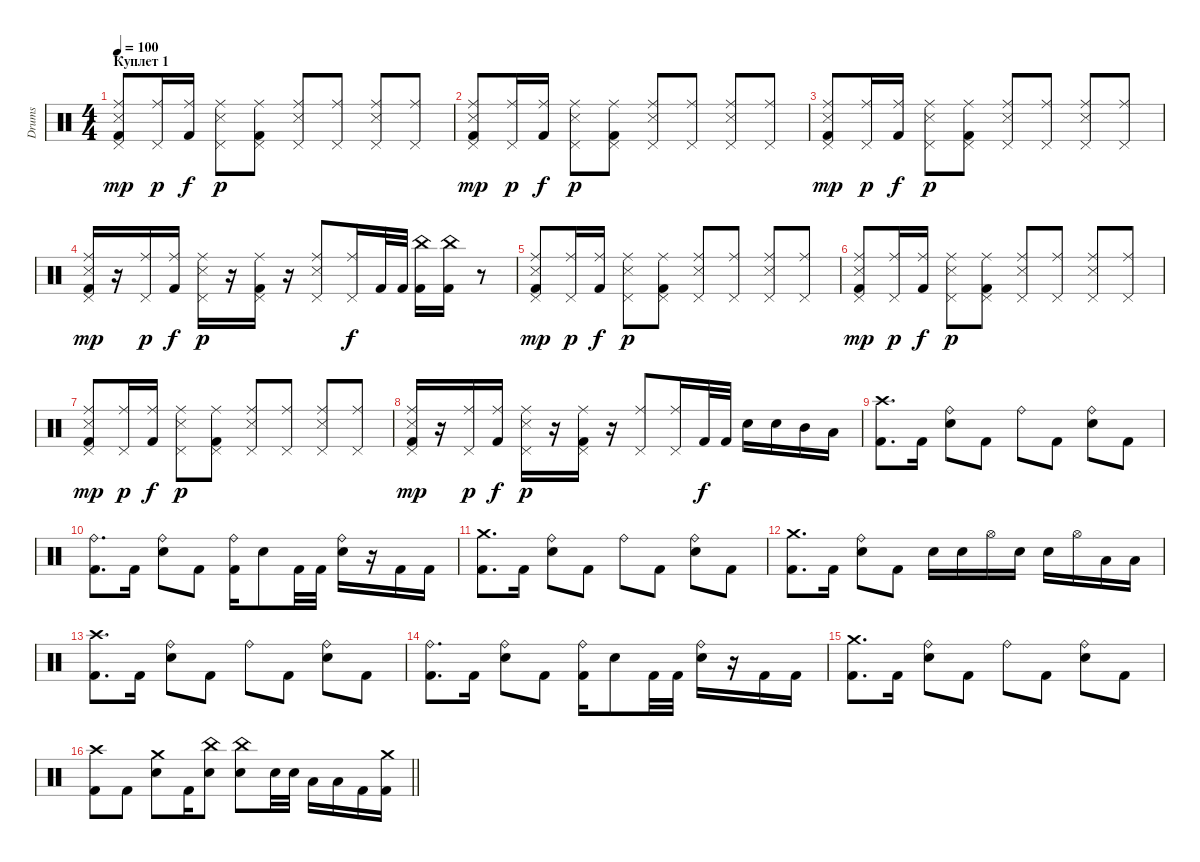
\track ("Drums" "Drums") {instrument percussion}
\staff {score}
\articulation defaults
\ts (4 4)
\section ("" "Куплет 1")
\tempo 100
\clef neutral
\ks c
("Ride (middle)" "Pedal Hi-Hat (hit)" "Snare (side stick) 3" "Kick (hit) 2").8{dy mp} ("Ride (middle)" "Pedal Hi-Hat (hit)").16{dy p} ("Ride (middle)" "Kick (hit) 2").16{dy f} ("Ride (middle)" "Pedal Hi-Hat (hit)" "Snare (side stick) 3").8{dy p} ("Ride (middle)" "Pedal Hi-Hat (hit)" "Kick (hit) 2").8 ("Ride (middle)" "Pedal Hi-Hat (hit)" "Snare (side stick) 3").8 ("Ride (middle)" "Pedal Hi-Hat (hit)").8 ("Ride (middle)" "Pedal Hi-Hat (hit)" "Snare (side stick) 3").8 ("Ride (middle)" "Pedal Hi-Hat (hit)").8 |
("Ride (middle)" "Pedal Hi-Hat (hit)" "Snare (side stick) 3" "Kick (hit) 2").8{dy mp} ("Ride (middle)" "Pedal Hi-Hat (hit)").16{dy p} ("Ride (middle)" "Kick (hit) 2").16{dy f} ("Ride (middle)" "Pedal Hi-Hat (hit)" "Snare (side stick) 3").8{dy p} ("Ride (middle)" "Pedal Hi-Hat (hit)" "Kick (hit) 2").8 ("Ride (middle)" "Pedal Hi-Hat (hit)" "Snare (side stick) 3").8 ("Ride (middle)" "Pedal Hi-Hat (hit)").8 ("Ride (middle)" "Pedal Hi-Hat (hit)" "Snare (side stick) 3").8 ("Ride (middle)" "Pedal Hi-Hat (hit)").8 |
("Ride (middle)" "Pedal Hi-Hat (hit)" "Snare (side stick) 3" "Kick (hit) 2").8{dy mp} ("Ride (middle)" "Pedal Hi-Hat (hit)").16{dy p} ("Ride (middle)" "Kick (hit) 2").16{dy f} ("Ride (middle)" "Pedal Hi-Hat (hit)" "Snare (side stick) 3").8{dy p} ("Ride (middle)" "Pedal Hi-Hat (hit)" "Kick (hit) 2").8 ("Ride (middle)" "Pedal Hi-Hat (hit)" "Snare (side stick) 3").8 ("Ride (middle)" "Pedal Hi-Hat (hit)").8 ("Ride (middle)" "Pedal Hi-Hat (hit)" "Snare (side stick) 3").8 ("Ride (middle)" "Pedal Hi-Hat (hit)").8 |
("Ride (middle)" "Pedal Hi-Hat (hit)" "Snare (side stick) 3" "Kick (hit) 2").16{dy mp} r.16 ("Ride (middle)" "Pedal Hi-Hat (hit)").16{dy p} ("Ride (middle)" "Kick (hit) 2").16{dy f} ("Ride (middle)" "Pedal Hi-Hat (hit)" "Snare (side stick) 3").16{dy p} r.16 ("Ride (middle)" "Pedal Hi-Hat (hit)" "Kick (hit) 2").16 r.16 ("Ride (middle)" "Pedal Hi-Hat (hit)" "Snare (side stick) 3").8 ("Ride (middle)" "Pedal Hi-Hat (hit)").16{dy f} "Kick (hit) 2".32 "Kick (hit) 2".32 ("China (hit)" "Kick (hit) 2").16 ("China (hit)" "Kick (hit) 2").16 r.8 |
("Ride (middle)" "Pedal Hi-Hat (hit)" "Snare (side stick) 3" "Kick (hit) 2").8{dy mp} ("Ride (middle)" "Pedal Hi-Hat (hit)").16{dy p} ("Ride (middle)" "Kick (hit) 2").16{dy f} ("Ride (middle)" "Pedal Hi-Hat (hit)" "Snare (side stick) 3").8{dy p} ("Ride (middle)" "Pedal Hi-Hat (hit)" "Kick (hit) 2").8 ("Ride (middle)" "Pedal Hi-Hat (hit)" "Snare (side stick) 3").8 ("Ride (middle)" "Pedal Hi-Hat (hit)").8 ("Ride (middle)" "Pedal Hi-Hat (hit)" "Snare (side stick) 3").8 ("Ride (middle)" "Pedal Hi-Hat (hit)").8 |
("Ride (middle)" "Pedal Hi-Hat (hit)" "Snare (side stick) 3" "Kick (hit) 2").8{dy mp} ("Ride (middle)" "Pedal Hi-Hat (hit)").16{dy p} ("Ride (middle)" "Kick (hit) 2").16{dy f} ("Ride (middle)" "Pedal Hi-Hat (hit)" "Snare (side stick) 3").8{dy p} ("Ride (middle)" "Pedal Hi-Hat (hit)" "Kick (hit) 2").8 ("Ride (middle)" "Pedal Hi-Hat (hit)" "Snare (side stick) 3").8 ("Ride (middle)" "Pedal Hi-Hat (hit)").8 ("Ride (middle)" "Pedal Hi-Hat (hit)" "Snare (side stick) 3").8 ("Ride (middle)" "Pedal Hi-Hat (hit)").8 |
("Ride (middle)" "Pedal Hi-Hat (hit)" "Snare (side stick) 3" "Kick (hit) 2").8{dy mp} ("Ride (middle)" "Pedal Hi-Hat (hit)").16{dy p} ("Ride (middle)" "Kick (hit) 2").16{dy f} ("Ride (middle)" "Pedal Hi-Hat (hit)" "Snare (side stick) 3").8{dy p} ("Ride (middle)" "Pedal Hi-Hat (hit)" "Kick (hit) 2").8 ("Ride (middle)" "Pedal Hi-Hat (hit)" "Snare (side stick) 3").8 ("Ride (middle)" "Pedal Hi-Hat (hit)").8 ("Ride (middle)" "Pedal Hi-Hat (hit)" "Snare (side stick) 3").8 ("Ride (middle)" "Pedal Hi-Hat (hit)").8 |
("Ride (middle)" "Pedal Hi-Hat (hit)" "Snare (side stick) 3" "Kick (hit) 2").16{dy mp} r.16 ("Ride (middle)" "Pedal Hi-Hat (hit)").16{dy p} ("Ride (middle)" "Kick (hit) 2").16{dy f} ("Ride (middle)" "Pedal Hi-Hat (hit)" "Snare (side stick) 3").16{dy p} r.16 ("Ride (middle)" "Pedal Hi-Hat (hit)" "Kick (hit) 2").16 r.16 ("Ride (middle)" "Pedal Hi-Hat (hit)").8 ("Ride (middle)" "Pedal Hi-Hat (hit)").16 "Kick (hit) 2".32{dy f} "Kick (hit) 2".32 "Snare (hit) 2".16 "Snare (hit) 2".16 "Mid Tom (hit)".16 "Low Tom (hit)".16 |
("Crash high (hit)" "Kick (hit) 2").8{d} "Kick (hit) 2".16 ("Ride (bell)" "Snare (hit) 2").8 "Kick (hit) 2".8 "Ride (bell)".8 "Kick (hit) 2".8 ("Ride (bell)" "Snare (hit) 2").8 "Kick (hit) 2".8 |
("Ride (bell)" "Kick (hit) 2").8{d} "Kick (hit) 2".16 ("Ride (bell)" "Snare (hit) 2").8 "Kick (hit) 2".8 ("Ride (bell)" "Kick (hit) 2").16 "Snare (hit) 2".8 "Kick (hit) 2".32 "Kick (hit) 2".32 ("Ride (bell)" "Snare (hit) 2").16 r.16 "Kick (hit) 2".16 "Kick (hit) 2".16 |
("Crash medium (hit)" "Kick (hit) 2").8{d} "Kick (hit) 2".16 ("Ride (bell)" "Snare (hit) 2").8 "Kick (hit) 2".8 "Ride (bell)".8 "Kick (hit) 2".8 ("Ride (bell)" "Snare (hit) 2").8 "Kick (hit) 2".8 |
("Crash medium (hit)" "Kick (hit) 2").8{d} "Kick (hit) 2".16 ("Ride (bell)" "Snare (hit) 2").8 "Kick (hit) 2".8 "Snare (hit) 2".16 "Snare (hit) 2".16 "Hi-Hat (open)".16 "Snare (hit) 2".16 "Snare (hit) 2".16 "Hi-Hat (open)".16 "Low Tom (hit)".16 "Low Tom (hit)".16 |
("Crash high (hit)" "Kick (hit) 2").8{d} "Kick (hit) 2".16 ("Ride (bell)" "Snare (hit) 2").8 "Kick (hit) 2".8 "Ride (bell)".8 "Kick (hit) 2".8 ("Ride (bell)" "Snare (hit) 2").8 "Kick (hit) 2".8 |
("Ride (bell)" "Kick (hit) 2").8{d} "Kick (hit) 2".16 ("Ride (bell)" "Snare (hit) 2").8 "Kick (hit) 2".8 ("Ride (bell)" "Kick (hit) 2").16 "Snare (hit) 2".8 "Kick (hit) 2".32 "Kick (hit) 2".32 ("Ride (bell)" "Snare (hit) 2").16 r.16 "Kick (hit) 2".16 "Kick (hit) 2".16 |
("Crash medium (hit)" "Kick (hit) 2").8{d} "Kick (hit) 2".16 ("Ride (bell)" "Snare (hit) 2").8 "Kick (hit) 2".8 "Ride (bell)".8 "Kick (hit) 2".8 ("Ride (bell)" "Snare (hit) 2").8 "Kick (hit) 2".8 |
\barLineRight lightlight
("Crash high (hit)" "Kick (hit) 2").8 "Kick (hit) 2".8 ("Crash medium (hit)" "Snare (hit) 2").8 "Kick (hit) 2".16 ("China (hit)" "Snare (hit) 2").8 ("China (hit)" "Snare (hit) 2").8 "Snare (hit) 2".32 "Snare (hit) 2".32 "Low Tom (hit)".16 "Low Tom (hit)".16 "Kick (hit) 2".16 ("Crash medium (hit)" "Kick (hit) 2").16
